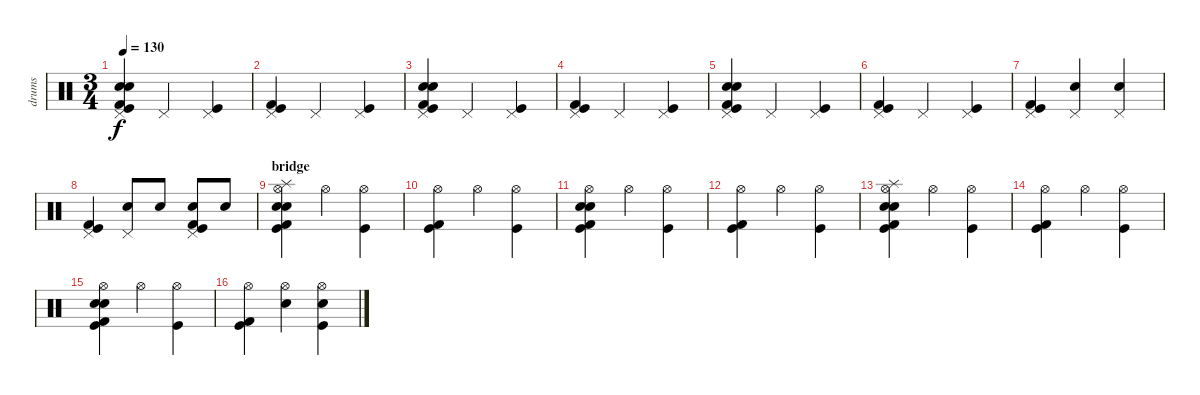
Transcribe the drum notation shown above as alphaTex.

\track ("drums" "drums") {instrument percussion}
\staff {score}
\articulation defaults
\ts (3 4)
\tempo 130
\clef neutral
\ks c
("Pedal Hi-Hat (hit)" "Electric Snare (hit)" "Snare (hit) 2" "Kick (hit) 2" "Kick (hit)").4{dy f} "Pedal Hi-Hat (hit)".4 ("Pedal Hi-Hat (hit)" "Kick (hit)").4 |
("Pedal Hi-Hat (hit)" "Kick (hit) 2" "Kick (hit)").4 "Pedal Hi-Hat (hit)".4 ("Pedal Hi-Hat (hit)" "Kick (hit)").4 |
("Pedal Hi-Hat (hit)" "Electric Snare (hit)" "Snare (hit) 2" "Kick (hit) 2" "Kick (hit)").4 "Pedal Hi-Hat (hit)".4 ("Pedal Hi-Hat (hit)" "Kick (hit)").4 |
("Pedal Hi-Hat (hit)" "Kick (hit) 2" "Kick (hit)").4 "Pedal Hi-Hat (hit)".4 ("Pedal Hi-Hat (hit)" "Kick (hit)").4 |
("Pedal Hi-Hat (hit)" "Electric Snare (hit)" "Snare (hit) 2" "Kick (hit) 2" "Kick (hit)").4 "Pedal Hi-Hat (hit)".4 ("Pedal Hi-Hat (hit)" "Kick (hit)").4 |
("Pedal Hi-Hat (hit)" "Kick (hit) 2" "Kick (hit)").4 "Pedal Hi-Hat (hit)".4 ("Pedal Hi-Hat (hit)" "Kick (hit)").4 |
("Pedal Hi-Hat (hit)" "Kick (hit) 2" "Kick (hit)").4 ("Pedal Hi-Hat (hit)" "Snare (hit) 2").4 ("Pedal Hi-Hat (hit)" "Snare (hit) 2").4 |
("Pedal Hi-Hat (hit)" "Kick (hit) 2" "Kick (hit)").4 ("Pedal Hi-Hat (hit)" "Snare (hit) 2").8 "Snare (hit) 2".8 ("Pedal Hi-Hat (hit)" "Snare (hit) 2" "Kick (hit) 2" "Kick (hit)").8 "Snare (hit) 2".8 |
\section ("" "bridge")
("Hi-Hat (open)" "Electric Snare (hit)" "Snare (hit) 2" "Splash (hit)" "Kick (hit) 2" "Kick (hit)").4 "Hi-Hat (open)".4 ("Hi-Hat (open)" "Kick (hit)").4 |
("Hi-Hat (open)" "Kick (hit) 2" "Kick (hit)").4 "Hi-Hat (open)".4 ("Hi-Hat (open)" "Kick (hit)").4 |
("Hi-Hat (open)" "Electric Snare (hit)" "Snare (hit) 2" "Kick (hit) 2" "Kick (hit)").4 "Hi-Hat (open)".4 ("Hi-Hat (open)" "Kick (hit)").4 |
("Hi-Hat (open)" "Kick (hit) 2" "Kick (hit)").4 "Hi-Hat (open)".4 ("Hi-Hat (open)" "Kick (hit)").4 |
("Hi-Hat (open)" "Electric Snare (hit)" "Snare (hit) 2" "Splash (hit)" "Kick (hit) 2" "Kick (hit)").4 "Hi-Hat (open)".4 ("Hi-Hat (open)" "Kick (hit)").4 |
("Hi-Hat (open)" "Kick (hit) 2" "Kick (hit)").4 "Hi-Hat (open)".4 ("Hi-Hat (open)" "Kick (hit)").4 |
("Hi-Hat (open)" "Electric Snare (hit)" "Snare (hit) 2" "Kick (hit) 2" "Kick (hit)").4 "Hi-Hat (open)".4 ("Hi-Hat (open)" "Kick (hit)").4 |
("Hi-Hat (open)" "Kick (hit) 2" "Kick (hit)").4 ("Hi-Hat (open)" "Snare (hit) 2").4 ("Hi-Hat (open)" "Snare (hit) 2" "Kick (hit)").4
